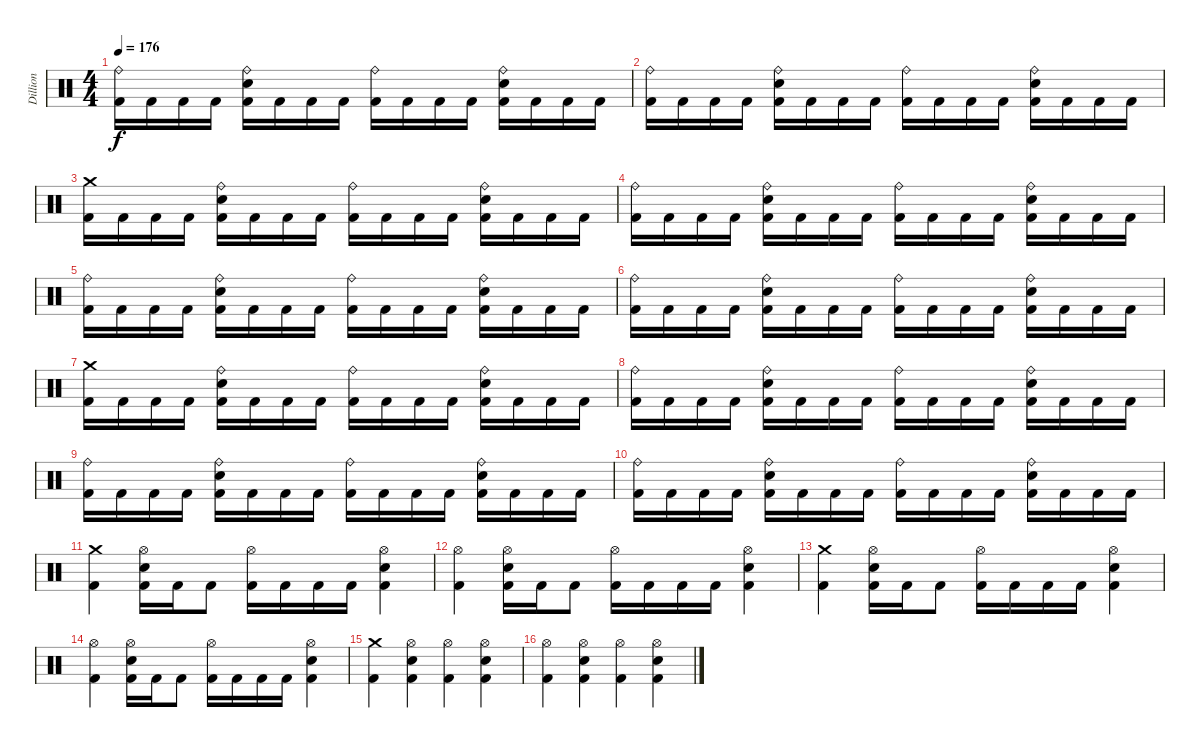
\track ("Dillion" "Dillion") {instrument percussion}
\staff {score}
\articulation defaults
\ts (4 4)
\tempo 176
\clef neutral
\ks c
("Ride (bell)" "Kick (hit) 2").16{dy f} "Kick (hit) 2".16 "Kick (hit) 2".16 "Kick (hit) 2".16 ("Ride (bell)" "Electric Snare (hit)" "Kick (hit) 2").16 "Kick (hit) 2".16 "Kick (hit) 2".16 "Kick (hit) 2".16 ("Ride (bell)" "Kick (hit) 2").16 "Kick (hit) 2".16 "Kick (hit) 2".16 "Kick (hit) 2".16 ("Ride (bell)" "Electric Snare (hit)" "Kick (hit) 2").16 "Kick (hit) 2".16 "Kick (hit) 2".16 "Kick (hit) 2".16 |
("Ride (bell)" "Kick (hit) 2").16 "Kick (hit) 2".16 "Kick (hit) 2".16 "Kick (hit) 2".16 ("Ride (bell)" "Electric Snare (hit)" "Kick (hit) 2").16 "Kick (hit) 2".16 "Kick (hit) 2".16 "Kick (hit) 2".16 ("Ride (bell)" "Kick (hit) 2").16 "Kick (hit) 2".16 "Kick (hit) 2".16 "Kick (hit) 2".16 ("Ride (bell)" "Electric Snare (hit)" "Kick (hit) 2").16 "Kick (hit) 2".16 "Kick (hit) 2".16 "Kick (hit) 2".16 |
("Crash medium (hit)" "Kick (hit) 2").16 "Kick (hit) 2".16 "Kick (hit) 2".16 "Kick (hit) 2".16 ("Ride (bell)" "Electric Snare (hit)" "Kick (hit) 2").16 "Kick (hit) 2".16 "Kick (hit) 2".16 "Kick (hit) 2".16 ("Ride (bell)" "Kick (hit) 2").16 "Kick (hit) 2".16 "Kick (hit) 2".16 "Kick (hit) 2".16 ("Ride (bell)" "Electric Snare (hit)" "Kick (hit) 2").16 "Kick (hit) 2".16 "Kick (hit) 2".16 "Kick (hit) 2".16 |
("Ride (bell)" "Kick (hit) 2").16 "Kick (hit) 2".16 "Kick (hit) 2".16 "Kick (hit) 2".16 ("Ride (bell)" "Electric Snare (hit)" "Kick (hit) 2").16 "Kick (hit) 2".16 "Kick (hit) 2".16 "Kick (hit) 2".16 ("Ride (bell)" "Kick (hit) 2").16 "Kick (hit) 2".16 "Kick (hit) 2".16 "Kick (hit) 2".16 ("Ride (bell)" "Electric Snare (hit)" "Kick (hit) 2").16 "Kick (hit) 2".16 "Kick (hit) 2".16 "Kick (hit) 2".16 |
("Ride (bell)" "Kick (hit) 2").16 "Kick (hit) 2".16 "Kick (hit) 2".16 "Kick (hit) 2".16 ("Ride (bell)" "Electric Snare (hit)" "Kick (hit) 2").16 "Kick (hit) 2".16 "Kick (hit) 2".16 "Kick (hit) 2".16 ("Ride (bell)" "Kick (hit) 2").16 "Kick (hit) 2".16 "Kick (hit) 2".16 "Kick (hit) 2".16 ("Ride (bell)" "Electric Snare (hit)" "Kick (hit) 2").16 "Kick (hit) 2".16 "Kick (hit) 2".16 "Kick (hit) 2".16 |
("Ride (bell)" "Kick (hit) 2").16 "Kick (hit) 2".16 "Kick (hit) 2".16 "Kick (hit) 2".16 ("Ride (bell)" "Electric Snare (hit)" "Kick (hit) 2").16 "Kick (hit) 2".16 "Kick (hit) 2".16 "Kick (hit) 2".16 ("Ride (bell)" "Kick (hit) 2").16 "Kick (hit) 2".16 "Kick (hit) 2".16 "Kick (hit) 2".16 ("Ride (bell)" "Electric Snare (hit)" "Kick (hit) 2").16 "Kick (hit) 2".16 "Kick (hit) 2".16 "Kick (hit) 2".16 |
("Crash medium (hit)" "Kick (hit) 2").16 "Kick (hit) 2".16 "Kick (hit) 2".16 "Kick (hit) 2".16 ("Ride (bell)" "Electric Snare (hit)" "Kick (hit) 2").16 "Kick (hit) 2".16 "Kick (hit) 2".16 "Kick (hit) 2".16 ("Ride (bell)" "Kick (hit) 2").16 "Kick (hit) 2".16 "Kick (hit) 2".16 "Kick (hit) 2".16 ("Ride (bell)" "Electric Snare (hit)" "Kick (hit) 2").16 "Kick (hit) 2".16 "Kick (hit) 2".16 "Kick (hit) 2".16 |
("Ride (bell)" "Kick (hit) 2").16 "Kick (hit) 2".16 "Kick (hit) 2".16 "Kick (hit) 2".16 ("Ride (bell)" "Electric Snare (hit)" "Kick (hit) 2").16 "Kick (hit) 2".16 "Kick (hit) 2".16 "Kick (hit) 2".16 ("Ride (bell)" "Kick (hit) 2").16 "Kick (hit) 2".16 "Kick (hit) 2".16 "Kick (hit) 2".16 ("Ride (bell)" "Electric Snare (hit)" "Kick (hit) 2").16 "Kick (hit) 2".16 "Kick (hit) 2".16 "Kick (hit) 2".16 |
("Ride (bell)" "Kick (hit) 2").16 "Kick (hit) 2".16 "Kick (hit) 2".16 "Kick (hit) 2".16 ("Ride (bell)" "Electric Snare (hit)" "Kick (hit) 2").16 "Kick (hit) 2".16 "Kick (hit) 2".16 "Kick (hit) 2".16 ("Ride (bell)" "Kick (hit) 2").16 "Kick (hit) 2".16 "Kick (hit) 2".16 "Kick (hit) 2".16 ("Ride (bell)" "Electric Snare (hit)" "Kick (hit) 2").16 "Kick (hit) 2".16 "Kick (hit) 2".16 "Kick (hit) 2".16 |
("Ride (bell)" "Kick (hit) 2").16 "Kick (hit) 2".16 "Kick (hit) 2".16 "Kick (hit) 2".16 ("Ride (bell)" "Electric Snare (hit)" "Kick (hit) 2").16 "Kick (hit) 2".16 "Kick (hit) 2".16 "Kick (hit) 2".16 ("Ride (bell)" "Kick (hit) 2").16 "Kick (hit) 2".16 "Kick (hit) 2".16 "Kick (hit) 2".16 ("Ride (bell)" "Electric Snare (hit)" "Kick (hit) 2").16 "Kick (hit) 2".16 "Kick (hit) 2".16 "Kick (hit) 2".16 |
("Crash medium (hit)" "Kick (hit) 2").4 ("Hi-Hat (open)" "Electric Snare (hit)" "Kick (hit) 2").16 "Kick (hit) 2".16 "Kick (hit) 2".8 ("Hi-Hat (open)" "Kick (hit) 2").16 "Kick (hit) 2".16 "Kick (hit) 2".16 "Kick (hit) 2".16 ("Hi-Hat (open)" "Electric Snare (hit)" "Kick (hit) 2").4 |
("Hi-Hat (open)" "Kick (hit) 2").4 ("Hi-Hat (open)" "Electric Snare (hit)" "Kick (hit) 2").16 "Kick (hit) 2".16 "Kick (hit) 2".8 ("Hi-Hat (open)" "Kick (hit) 2").16 "Kick (hit) 2".16 "Kick (hit) 2".16 "Kick (hit) 2".16 ("Hi-Hat (open)" "Electric Snare (hit)" "Kick (hit) 2").4 |
("Crash medium (hit)" "Kick (hit) 2").4 ("Hi-Hat (open)" "Electric Snare (hit)" "Kick (hit) 2").16 "Kick (hit) 2".16 "Kick (hit) 2".8 ("Hi-Hat (open)" "Kick (hit) 2").16 "Kick (hit) 2".16 "Kick (hit) 2".16 "Kick (hit) 2".16 ("Hi-Hat (open)" "Electric Snare (hit)" "Kick (hit) 2").4 |
("Hi-Hat (open)" "Kick (hit) 2").4 ("Hi-Hat (open)" "Electric Snare (hit)" "Kick (hit) 2").16 "Kick (hit) 2".16 "Kick (hit) 2".8 ("Hi-Hat (open)" "Kick (hit) 2").16 "Kick (hit) 2".16 "Kick (hit) 2".16 "Kick (hit) 2".16 ("Hi-Hat (open)" "Electric Snare (hit)" "Kick (hit) 2").4 |
("Crash medium (hit)" "Kick (hit) 2").4 ("Hi-Hat (open)" "Electric Snare (hit)" "Kick (hit) 2").4 ("Hi-Hat (open)" "Kick (hit) 2").4 ("Hi-Hat (open)" "Electric Snare (hit)" "Kick (hit) 2").4 |
("Hi-Hat (open)" "Kick (hit) 2").4 ("Hi-Hat (open)" "Electric Snare (hit)" "Kick (hit) 2").4 ("Hi-Hat (open)" "Kick (hit) 2").4 ("Hi-Hat (open)" "Electric Snare (hit)" "Kick (hit) 2").4
